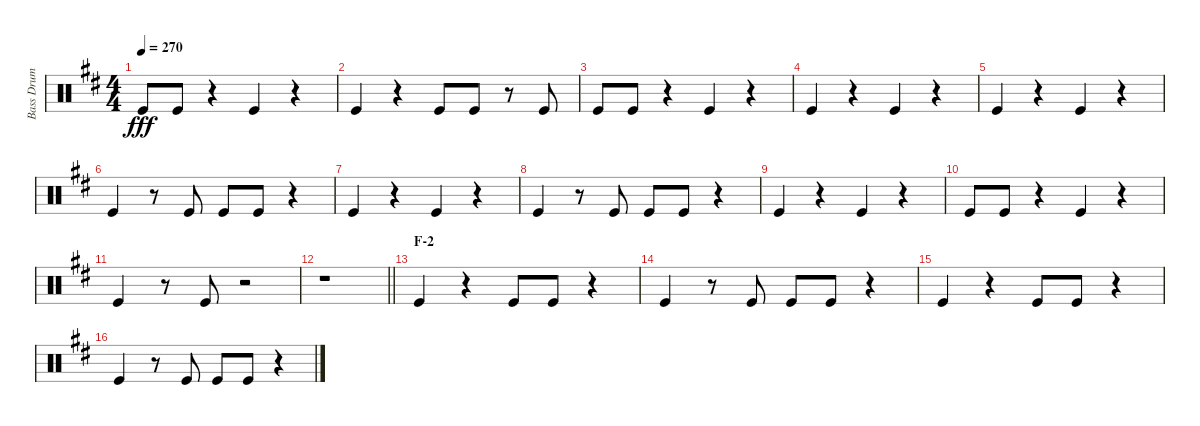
\track ("Bass Drum" "Bass Drum") {instrument percussion}
\staff {score}
\articulation defaults
\ts (4 4)
\tempo 270
\clef neutral
\ks d "Kick (hit)".8{dy fff} "Kick (hit)".8
r.4 "Kick (hit)".4 r.4 |
"Kick (hit)".4 r.4 "Kick (hit)".8 "Kick (hit)".8 r.8 "Kick (hit)".8 |
"Kick (hit)".8 "Kick (hit)".8 r.4 "Kick (hit)".4 r.4 |
"Kick (hit)".4 r.4 "Kick (hit)".4 r.4 |
"Kick (hit)".4 r.4 "Kick (hit)".4 r.4 |
"Kick (hit)".4 r.8 "Kick (hit)".8 "Kick (hit)".8 "Kick (hit)".8 r.4 |
"Kick (hit)".4 r.4 "Kick (hit)".4 r.4 |
"Kick (hit)".4 r.8 "Kick (hit)".8 "Kick (hit)".8 "Kick (hit)".8 r.4 |
"Kick (hit)".4 r.4 "Kick (hit)".4 r.4 |
"Kick (hit)".8 "Kick (hit)".8 r.4 "Kick (hit)".4 r.4 |
"Kick (hit)".4 r.8 "Kick (hit)".8 r.2 |
\barLineRight lightlight
r.1 |
\section ("" "F-2")
"Kick (hit)".4 r.4 "Kick (hit)".8 "Kick (hit)".8 r.4 |
"Kick (hit)".4 r.8 "Kick (hit)".8 "Kick (hit)".8 "Kick (hit)".8 r.4 |
"Kick (hit)".4 r.4 "Kick (hit)".8 "Kick (hit)".8 r.4 |
"Kick (hit)".4 r.8 "Kick (hit)".8 "Kick (hit)".8 "Kick (hit)".8 r.4
